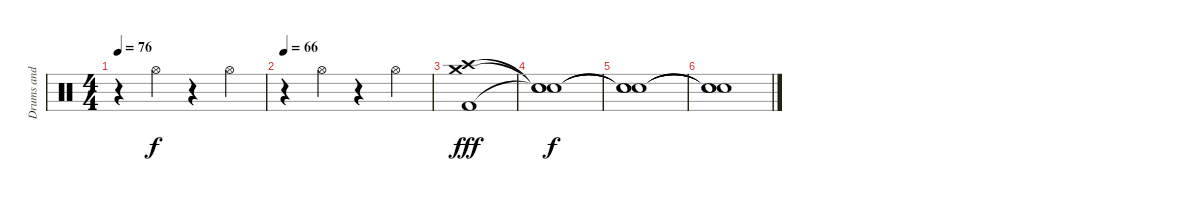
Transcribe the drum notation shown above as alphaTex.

\track ("Drums and Percussion" "Drums and ") {instrument percussion}
\staff {score}
\articulation defaults
\ts (4 4)
\tempo 76
\clef neutral
\ks c
r.4{dy f} "Hi-Hat (open)".4 r.4 "Hi-Hat (open)".4 |
\tempo 66
r.4 "Hi-Hat (open)".4 r.4 "Hi-Hat (open)".4 |
("Crash medium (hit)" "Crash high (hit)" "Kick (hit) 2").1{dy fff} |
("Snare (hit)"{t} "Snare (hit)"{t} "Snare (hit)"{t}).1{dy f} |
("Snare (hit)"{t} "Snare (hit)"{t} "Snare (hit)"{t}).1 |
("Snare (hit)"{t} "Snare (hit)"{t} "Snare (hit)"{t}).1
